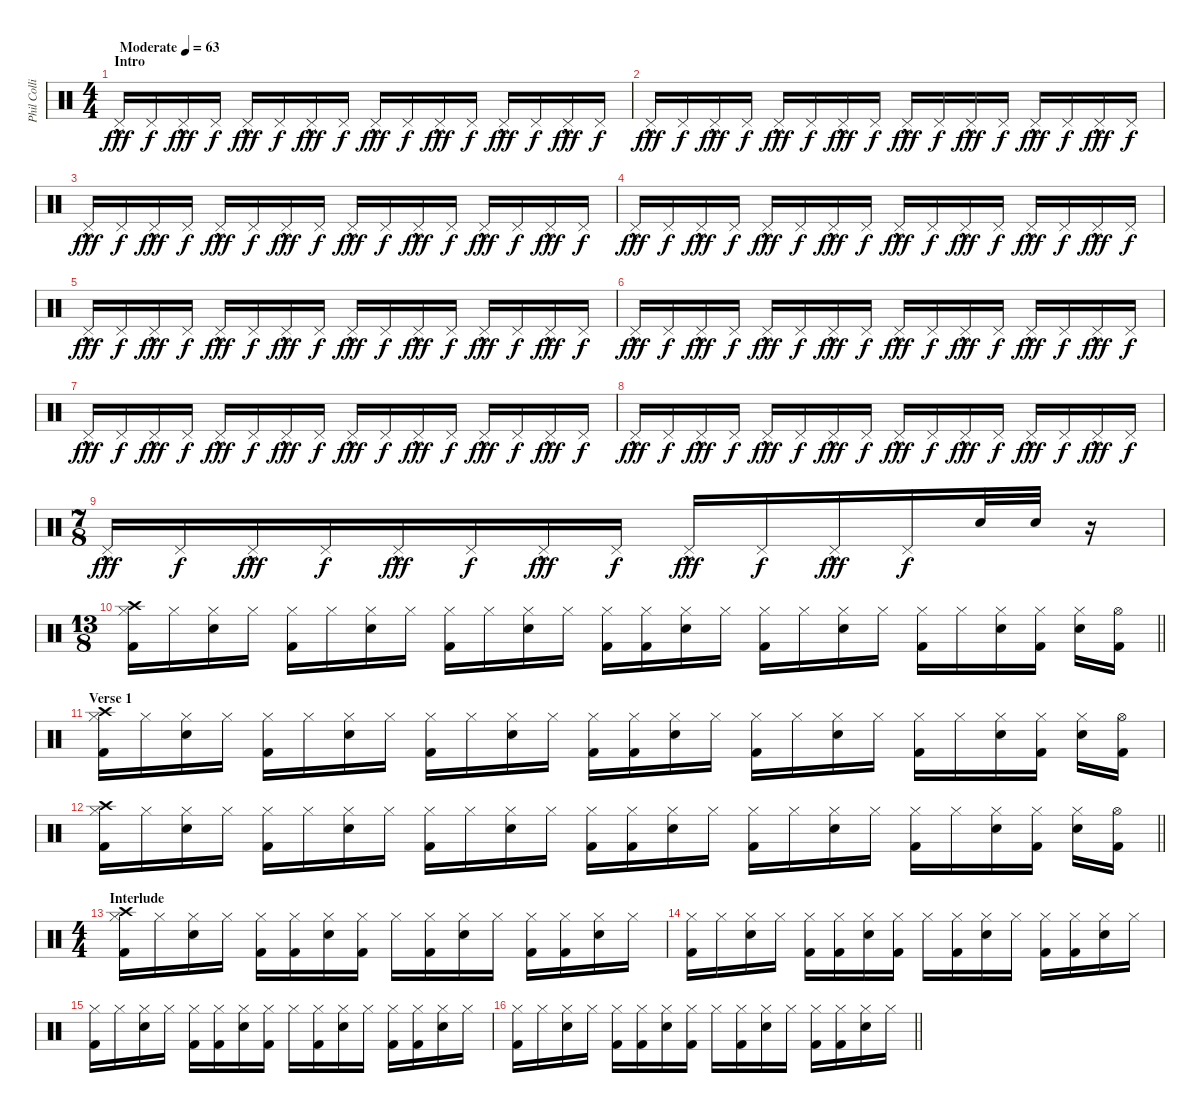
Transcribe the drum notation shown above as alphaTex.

\track ("Phil Collins (Percussion)" "Phil Colli") {instrument percussion}
\staff {score}
\articulation defaults
\ts (4 4)
\section ("" "Intro")
\tempo (63 "Moderate")
\clef neutral
\ks c "Pedal Hi-Hat (hit)"{hac}.16{dy fff} "Pedal Hi-Hat (hit)".16{dy f} "Pedal Hi-Hat (hit)"{hac}.16{dy fff} "Pedal Hi-Hat (hit)".16{dy f} "Pedal Hi-Hat (hit)"{hac}.16{dy fff} "Pedal Hi-Hat (hit)".16{dy f} "Pedal Hi-Hat (hit)"{hac}.16{dy fff} "Pedal Hi-Hat (hit)".16{dy f} "Pedal Hi-Hat (hit)"{hac}.16{dy fff} "Pedal Hi-Hat (hit)".16{dy f} "Pedal Hi-Hat (hit)"{hac}.16{dy fff} "Pedal Hi-Hat (hit)".16{dy f} "Pedal Hi-Hat (hit)"{hac}.16{dy fff} "Pedal Hi-Hat (hit)".16{dy f} "Pedal Hi-Hat (hit)"{hac}.16{dy fff} "Pedal Hi-Hat (hit)".16{dy f}
|
"Pedal Hi-Hat (hit)"{hac}.16{dy fff} "Pedal Hi-Hat (hit)".16{dy f} "Pedal Hi-Hat (hit)"{hac}.16{dy fff} "Pedal Hi-Hat (hit)".16{dy f} "Pedal Hi-Hat (hit)"{hac}.16{dy fff} "Pedal Hi-Hat (hit)".16{dy f} "Pedal Hi-Hat (hit)"{hac}.16{dy fff} "Pedal Hi-Hat (hit)".16{dy f} "Pedal Hi-Hat (hit)"{hac}.16{dy fff} "Pedal Hi-Hat (hit)".16{dy f} "Pedal Hi-Hat (hit)"{hac}.16{dy fff} "Pedal Hi-Hat (hit)".16{dy f} "Pedal Hi-Hat (hit)"{hac}.16{dy fff} "Pedal Hi-Hat (hit)".16{dy f} "Pedal Hi-Hat (hit)"{hac}.16{dy fff} "Pedal Hi-Hat (hit)".16{dy f} |
"Pedal Hi-Hat (hit)"{hac}.16{dy fff} "Pedal Hi-Hat (hit)".16{dy f} "Pedal Hi-Hat (hit)"{hac}.16{dy fff} "Pedal Hi-Hat (hit)".16{dy f} "Pedal Hi-Hat (hit)"{hac}.16{dy fff} "Pedal Hi-Hat (hit)".16{dy f} "Pedal Hi-Hat (hit)"{hac}.16{dy fff} "Pedal Hi-Hat (hit)".16{dy f} "Pedal Hi-Hat (hit)"{hac}.16{dy fff} "Pedal Hi-Hat (hit)".16{dy f} "Pedal Hi-Hat (hit)"{hac}.16{dy fff} "Pedal Hi-Hat (hit)".16{dy f} "Pedal Hi-Hat (hit)"{hac}.16{dy fff} "Pedal Hi-Hat (hit)".16{dy f} "Pedal Hi-Hat (hit)"{hac}.16{dy fff} "Pedal Hi-Hat (hit)".16{dy f} |
"Pedal Hi-Hat (hit)"{hac}.16{dy fff} "Pedal Hi-Hat (hit)".16{dy f} "Pedal Hi-Hat (hit)"{hac}.16{dy fff} "Pedal Hi-Hat (hit)".16{dy f} "Pedal Hi-Hat (hit)"{hac}.16{dy fff} "Pedal Hi-Hat (hit)".16{dy f} "Pedal Hi-Hat (hit)"{hac}.16{dy fff} "Pedal Hi-Hat (hit)".16{dy f} "Pedal Hi-Hat (hit)"{hac}.16{dy fff} "Pedal Hi-Hat (hit)".16{dy f} "Pedal Hi-Hat (hit)"{hac}.16{dy fff} "Pedal Hi-Hat (hit)".16{dy f} "Pedal Hi-Hat (hit)"{hac}.16{dy fff} "Pedal Hi-Hat (hit)".16{dy f} "Pedal Hi-Hat (hit)"{hac}.16{dy fff} "Pedal Hi-Hat (hit)".16{dy f} |
"Pedal Hi-Hat (hit)"{hac}.16{dy fff} "Pedal Hi-Hat (hit)".16{dy f} "Pedal Hi-Hat (hit)"{hac}.16{dy fff} "Pedal Hi-Hat (hit)".16{dy f} "Pedal Hi-Hat (hit)"{hac}.16{dy fff} "Pedal Hi-Hat (hit)".16{dy f} "Pedal Hi-Hat (hit)"{hac}.16{dy fff} "Pedal Hi-Hat (hit)".16{dy f} "Pedal Hi-Hat (hit)"{hac}.16{dy fff} "Pedal Hi-Hat (hit)".16{dy f} "Pedal Hi-Hat (hit)"{hac}.16{dy fff} "Pedal Hi-Hat (hit)".16{dy f} "Pedal Hi-Hat (hit)"{hac}.16{dy fff} "Pedal Hi-Hat (hit)".16{dy f} "Pedal Hi-Hat (hit)"{hac}.16{dy fff} "Pedal Hi-Hat (hit)".16{dy f} |
"Pedal Hi-Hat (hit)"{hac}.16{dy fff} "Pedal Hi-Hat (hit)".16{dy f} "Pedal Hi-Hat (hit)"{hac}.16{dy fff} "Pedal Hi-Hat (hit)".16{dy f} "Pedal Hi-Hat (hit)"{hac}.16{dy fff} "Pedal Hi-Hat (hit)".16{dy f} "Pedal Hi-Hat (hit)"{hac}.16{dy fff} "Pedal Hi-Hat (hit)".16{dy f} "Pedal Hi-Hat (hit)"{hac}.16{dy fff} "Pedal Hi-Hat (hit)".16{dy f} "Pedal Hi-Hat (hit)"{hac}.16{dy fff} "Pedal Hi-Hat (hit)".16{dy f} "Pedal Hi-Hat (hit)"{hac}.16{dy fff} "Pedal Hi-Hat (hit)".16{dy f} "Pedal Hi-Hat (hit)"{hac}.16{dy fff} "Pedal Hi-Hat (hit)".16{dy f} |
"Pedal Hi-Hat (hit)"{hac}.16{dy fff} "Pedal Hi-Hat (hit)".16{dy f} "Pedal Hi-Hat (hit)"{hac}.16{dy fff} "Pedal Hi-Hat (hit)".16{dy f} "Pedal Hi-Hat (hit)"{hac}.16{dy fff} "Pedal Hi-Hat (hit)".16{dy f} "Pedal Hi-Hat (hit)"{hac}.16{dy fff} "Pedal Hi-Hat (hit)".16{dy f} "Pedal Hi-Hat (hit)"{hac}.16{dy fff} "Pedal Hi-Hat (hit)".16{dy f} "Pedal Hi-Hat (hit)"{hac}.16{dy fff} "Pedal Hi-Hat (hit)".16{dy f} "Pedal Hi-Hat (hit)"{hac}.16{dy fff} "Pedal Hi-Hat (hit)".16{dy f} "Pedal Hi-Hat (hit)"{hac}.16{dy fff} "Pedal Hi-Hat (hit)".16{dy f} |
"Pedal Hi-Hat (hit)"{hac}.16{dy fff} "Pedal Hi-Hat (hit)".16{dy f} "Pedal Hi-Hat (hit)"{hac}.16{dy fff} "Pedal Hi-Hat (hit)".16{dy f} "Pedal Hi-Hat (hit)"{hac}.16{dy fff} "Pedal Hi-Hat (hit)".16{dy f} "Pedal Hi-Hat (hit)"{hac}.16{dy fff} "Pedal Hi-Hat (hit)".16{dy f} "Pedal Hi-Hat (hit)"{hac}.16{dy fff} "Pedal Hi-Hat (hit)".16{dy f} "Pedal Hi-Hat (hit)"{hac}.16{dy fff} "Pedal Hi-Hat (hit)".16{dy f} "Pedal Hi-Hat (hit)"{hac}.16{dy fff} "Pedal Hi-Hat (hit)".16{dy f} "Pedal Hi-Hat (hit)"{hac}.16{dy fff} "Pedal Hi-Hat (hit)".16{dy f} |
\ts (7 8)
"Pedal Hi-Hat (hit)"{hac}.16{dy fff} "Pedal Hi-Hat (hit)".16{dy f} "Pedal Hi-Hat (hit)"{hac}.16{dy fff} "Pedal Hi-Hat (hit)".16{dy f} "Pedal Hi-Hat (hit)"{hac}.16{dy fff} "Pedal Hi-Hat (hit)".16{dy f} "Pedal Hi-Hat (hit)"{hac}.16{dy fff} "Pedal Hi-Hat (hit)".16{dy f} "Pedal Hi-Hat (hit)"{hac}.16{dy fff} "Pedal Hi-Hat (hit)".16{dy f} "Pedal Hi-Hat (hit)"{hac}.16{dy fff} "Pedal Hi-Hat (hit)".16{dy f} "Snare (hit) 2".32 "Snare (hit) 2".32 r.16 |
\ts (13 8)
\barLineRight lightlight
("Crash high (hit)" "Hi-Hat (closed)" "Kick (hit) 2").16 "Hi-Hat (closed)".16 ("Snare (hit) 2" "Hi-Hat (closed)").16 "Hi-Hat (closed)".16 ("Hi-Hat (closed)" "Kick (hit) 2").16 "Hi-Hat (closed)".16 ("Snare (hit) 2" "Hi-Hat (closed)").16 "Hi-Hat (closed)".16 ("Hi-Hat (closed)" "Kick (hit) 2").16 "Hi-Hat (closed)".16 ("Snare (hit) 2" "Hi-Hat (closed)").16 "Hi-Hat (closed)".16 ("Hi-Hat (closed)" "Kick (hit) 2").16 ("Hi-Hat (closed)" "Kick (hit) 2").16 ("Snare (hit) 2" "Hi-Hat (closed)").16 "Hi-Hat (closed)".16 ("Hi-Hat (closed)" "Kick (hit) 2").16 "Hi-Hat (closed)".16 ("Snare (hit) 2" "Hi-Hat (closed)").16 "Hi-Hat (closed)".16 ("Hi-Hat (closed)" "Kick (hit) 2").16 "Hi-Hat (closed)".16 ("Snare (hit) 2" "Hi-Hat (closed)").16 ("Hi-Hat (closed)" "Kick (hit) 2").16 ("Snare (hit) 2" "Hi-Hat (closed)").16 ("Hi-Hat (open)" "Kick (hit) 2").16 |
\section ("" "Verse 1")
("Crash high (hit)" "Hi-Hat (closed)" "Kick (hit) 2").16 "Hi-Hat (closed)".16 ("Snare (hit) 2" "Hi-Hat (closed)").16 "Hi-Hat (closed)".16 ("Hi-Hat (closed)" "Kick (hit) 2").16 "Hi-Hat (closed)".16 ("Snare (hit) 2" "Hi-Hat (closed)").16 "Hi-Hat (closed)".16 ("Hi-Hat (closed)" "Kick (hit) 2").16 "Hi-Hat (closed)".16 ("Snare (hit) 2" "Hi-Hat (closed)").16 "Hi-Hat (closed)".16 ("Hi-Hat (closed)" "Kick (hit) 2").16 ("Hi-Hat (closed)" "Kick (hit) 2").16 ("Snare (hit) 2" "Hi-Hat (closed)").16 "Hi-Hat (closed)".16 ("Hi-Hat (closed)" "Kick (hit) 2").16 "Hi-Hat (closed)".16 ("Snare (hit) 2" "Hi-Hat (closed)").16 "Hi-Hat (closed)".16 ("Hi-Hat (closed)" "Kick (hit) 2").16 "Hi-Hat (closed)".16 ("Snare (hit) 2" "Hi-Hat (closed)").16 ("Hi-Hat (closed)" "Kick (hit) 2").16 ("Snare (hit) 2" "Hi-Hat (closed)").16 ("Hi-Hat (open)" "Kick (hit) 2").16 |
\barLineRight lightlight
("Crash high (hit)" "Hi-Hat (closed)" "Kick (hit) 2").16 "Hi-Hat (closed)".16 ("Snare (hit) 2" "Hi-Hat (closed)").16 "Hi-Hat (closed)".16 ("Hi-Hat (closed)" "Kick (hit) 2").16 "Hi-Hat (closed)".16 ("Snare (hit) 2" "Hi-Hat (closed)").16 "Hi-Hat (closed)".16 ("Hi-Hat (closed)" "Kick (hit) 2").16 "Hi-Hat (closed)".16 ("Snare (hit) 2" "Hi-Hat (closed)").16 "Hi-Hat (closed)".16 ("Hi-Hat (closed)" "Kick (hit) 2").16 ("Hi-Hat (closed)" "Kick (hit) 2").16 ("Snare (hit) 2" "Hi-Hat (closed)").16 "Hi-Hat (closed)".16 ("Hi-Hat (closed)" "Kick (hit) 2").16 "Hi-Hat (closed)".16 ("Snare (hit) 2" "Hi-Hat (closed)").16 "Hi-Hat (closed)".16 ("Hi-Hat (closed)" "Kick (hit) 2").16 "Hi-Hat (closed)".16 ("Snare (hit) 2" "Hi-Hat (closed)").16 ("Hi-Hat (closed)" "Kick (hit) 2").16 ("Snare (hit) 2" "Hi-Hat (closed)").16 ("Hi-Hat (open)" "Kick (hit) 2").16 |
\ts (4 4)
\section ("" "Interlude")
("Crash high (hit)" "Hi-Hat (closed)" "Kick (hit) 2").16 "Hi-Hat (closed)".16 ("Snare (hit) 2" "Hi-Hat (closed)").16 "Hi-Hat (closed)".16 ("Hi-Hat (closed)" "Kick (hit) 2").16 ("Hi-Hat (closed)" "Kick (hit) 2").16 ("Snare (hit) 2" "Hi-Hat (closed)").16 ("Hi-Hat (closed)" "Kick (hit) 2").16 "Hi-Hat (closed)".16 ("Hi-Hat (closed)" "Kick (hit) 2").16 ("Snare (hit) 2" "Hi-Hat (closed)").16 "Hi-Hat (closed)".16 ("Hi-Hat (closed)" "Kick (hit) 2").16 ("Hi-Hat (closed)" "Kick (hit) 2").16 ("Snare (hit) 2" "Hi-Hat (closed)").16 "Hi-Hat (closed)".16 |
("Hi-Hat (closed)" "Kick (hit) 2").16 "Hi-Hat (closed)".16 ("Snare (hit) 2" "Hi-Hat (closed)").16 "Hi-Hat (closed)".16 ("Hi-Hat (closed)" "Kick (hit) 2").16 ("Hi-Hat (closed)" "Kick (hit) 2").16 ("Snare (hit) 2" "Hi-Hat (closed)").16 ("Hi-Hat (closed)" "Kick (hit) 2").16 "Hi-Hat (closed)".16 ("Hi-Hat (closed)" "Kick (hit) 2").16 ("Snare (hit) 2" "Hi-Hat (closed)").16 "Hi-Hat (closed)".16 ("Hi-Hat (closed)" "Kick (hit) 2").16 ("Hi-Hat (closed)" "Kick (hit) 2").16 ("Snare (hit) 2" "Hi-Hat (closed)").16 "Hi-Hat (closed)".16 |
("Hi-Hat (closed)" "Kick (hit) 2").16 "Hi-Hat (closed)".16 ("Snare (hit) 2" "Hi-Hat (closed)").16 "Hi-Hat (closed)".16 ("Hi-Hat (closed)" "Kick (hit) 2").16 ("Hi-Hat (closed)" "Kick (hit) 2").16 ("Snare (hit) 2" "Hi-Hat (closed)").16 ("Hi-Hat (closed)" "Kick (hit) 2").16 "Hi-Hat (closed)".16 ("Hi-Hat (closed)" "Kick (hit) 2").16 ("Snare (hit) 2" "Hi-Hat (closed)").16 "Hi-Hat (closed)".16 ("Hi-Hat (closed)" "Kick (hit) 2").16 ("Hi-Hat (closed)" "Kick (hit) 2").16 ("Snare (hit) 2" "Hi-Hat (closed)").16 "Hi-Hat (closed)".16 |
\barLineRight lightlight
("Hi-Hat (closed)" "Kick (hit) 2").16 "Hi-Hat (closed)".16 ("Snare (hit) 2" "Hi-Hat (closed)").16 "Hi-Hat (closed)".16 ("Hi-Hat (closed)" "Kick (hit) 2").16 ("Hi-Hat (closed)" "Kick (hit) 2").16 ("Snare (hit) 2" "Hi-Hat (closed)").16 ("Hi-Hat (closed)" "Kick (hit) 2").16 "Hi-Hat (closed)".16 ("Hi-Hat (closed)" "Kick (hit) 2").16 ("Snare (hit) 2" "Hi-Hat (closed)").16 "Hi-Hat (closed)".16 ("Hi-Hat (closed)" "Kick (hit) 2").16 ("Hi-Hat (closed)" "Kick (hit) 2").16 ("Snare (hit) 2" "Hi-Hat (closed)").16 "Hi-Hat (closed)".16
